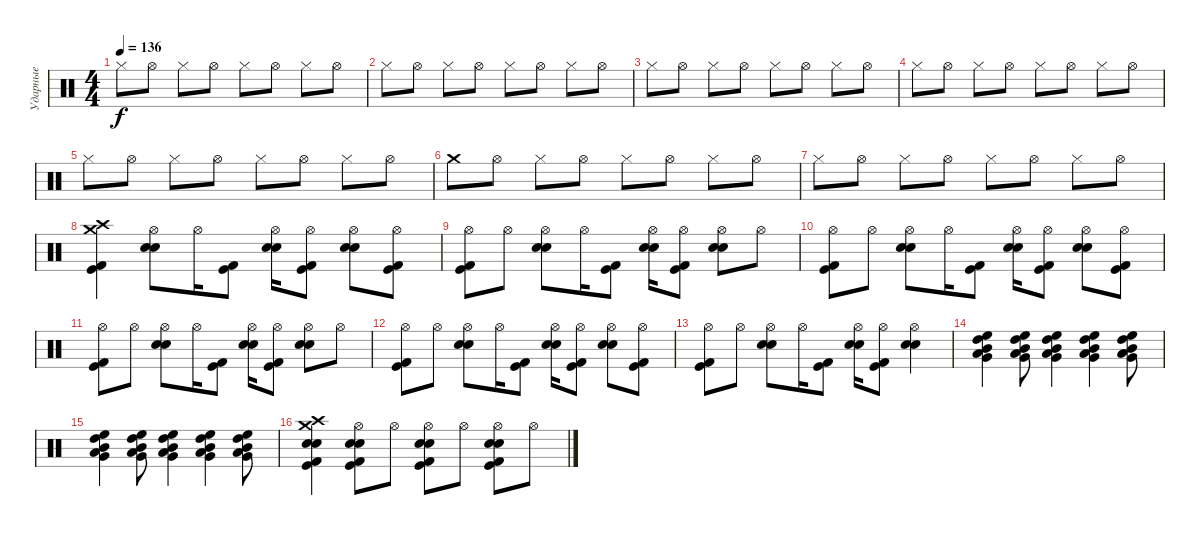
\track ("Ударные" "Ударные") {instrument percussion}
\staff {score}
\articulation defaults
\ts (4 4)
\tempo 136
\clef neutral
\ks c "Hi-Hat (closed)".8{dy f} "Hi-Hat (open)".8 "Hi-Hat (closed)".8 "Hi-Hat (open)".8 "Hi-Hat (closed)".8 "Hi-Hat (open)".8 "Hi-Hat (closed)".8 "Hi-Hat (open)".8
|
"Hi-Hat (closed)".8 "Hi-Hat (open)".8 "Hi-Hat (closed)".8 "Hi-Hat (open)".8 "Hi-Hat (closed)".8 "Hi-Hat (open)".8 "Hi-Hat (closed)".8 "Hi-Hat (open)".8 |
"Hi-Hat (closed)".8 "Hi-Hat (open)".8 "Hi-Hat (closed)".8 "Hi-Hat (open)".8 "Hi-Hat (closed)".8 "Hi-Hat (open)".8 "Hi-Hat (closed)".8 "Hi-Hat (open)".8 |
"Hi-Hat (closed)".8 "Hi-Hat (open)".8 "Hi-Hat (closed)".8 "Hi-Hat (open)".8 "Hi-Hat (closed)".8 "Hi-Hat (open)".8 "Hi-Hat (closed)".8 "Hi-Hat (open)".8 |
"Hi-Hat (closed)".8 "Hi-Hat (open)".8 "Hi-Hat (closed)".8 "Hi-Hat (open)".8 "Hi-Hat (closed)".8 "Hi-Hat (open)".8 "Hi-Hat (closed)".8 "Hi-Hat (open)".8 |
"Crash medium (hit)".8 "Hi-Hat (open)".8 "Hi-Hat (closed)".8 "Hi-Hat (open)".8 "Hi-Hat (closed)".8 "Hi-Hat (open)".8 "Hi-Hat (closed)".8 "Hi-Hat (open)".8 |
"Hi-Hat (closed)".8 "Hi-Hat (open)".8 "Hi-Hat (closed)".8 "Hi-Hat (open)".8 "Hi-Hat (closed)".8 "Hi-Hat (open)".8 "Hi-Hat (closed)".8 "Hi-Hat (open)".8 |
("Crash high (hit)" "Kick (hit)" "Kick (hit) 2" "Crash medium (hit)").4 ("Hi-Hat (open)" "Snare (hit) 2" "Electric Snare (hit)").8 "Hi-Hat (open)".16 ("Kick (hit)" "Kick (hit) 2").8 ("Hi-Hat (open)" "Snare (hit) 2" "Electric Snare (hit)").16 ("Hi-Hat (open)" "Kick (hit)" "Kick (hit) 2").8 ("Hi-Hat (open)" "Snare (hit) 2" "Electric Snare (hit)").8 ("Hi-Hat (open)" "Kick (hit)" "Kick (hit) 2").8 |
("Hi-Hat (open)" "Kick (hit)" "Kick (hit) 2").8 "Hi-Hat (open)".8 ("Hi-Hat (open)" "Snare (hit) 2" "Electric Snare (hit)").8 "Hi-Hat (open)".16 ("Kick (hit)" "Kick (hit) 2").8 ("Hi-Hat (open)" "Snare (hit) 2" "Electric Snare (hit)").16 ("Hi-Hat (open)" "Kick (hit)" "Kick (hit) 2").8 ("Hi-Hat (open)" "Snare (hit) 2" "Electric Snare (hit)").8 "Hi-Hat (open)".8 |
("Hi-Hat (open)" "Kick (hit)" "Kick (hit) 2").8 "Hi-Hat (open)".8 ("Hi-Hat (open)" "Snare (hit) 2" "Electric Snare (hit)").8 "Hi-Hat (open)".16 ("Kick (hit)" "Kick (hit) 2").8 ("Hi-Hat (open)" "Snare (hit) 2" "Electric Snare (hit)").16 ("Hi-Hat (open)" "Kick (hit)" "Kick (hit) 2").8 ("Hi-Hat (open)" "Snare (hit) 2" "Electric Snare (hit)").8 ("Hi-Hat (open)" "Kick (hit)" "Kick (hit) 2").8 |
("Hi-Hat (open)" "Kick (hit)" "Kick (hit) 2").8 "Hi-Hat (open)".8 ("Hi-Hat (open)" "Snare (hit) 2" "Electric Snare (hit)").8 "Hi-Hat (open)".16 ("Kick (hit)" "Kick (hit) 2").8 ("Hi-Hat (open)" "Snare (hit) 2" "Electric Snare (hit)").16 ("Hi-Hat (open)" "Kick (hit)" "Kick (hit) 2").8 ("Hi-Hat (open)" "Snare (hit) 2" "Electric Snare (hit)").8 "Hi-Hat (open)".8 |
("Hi-Hat (open)" "Kick (hit)" "Kick (hit) 2").8 "Hi-Hat (open)".8 ("Hi-Hat (open)" "Snare (hit) 2" "Electric Snare (hit)").8 "Hi-Hat (open)".16 ("Kick (hit)" "Kick (hit) 2").8 ("Hi-Hat (open)" "Snare (hit) 2" "Electric Snare (hit)").16 ("Hi-Hat (open)" "Kick (hit)" "Kick (hit) 2").8 ("Hi-Hat (open)" "Snare (hit) 2" "Electric Snare (hit)").8 ("Hi-Hat (open)" "Kick (hit)" "Kick (hit) 2").8 |
("Hi-Hat (open)" "Kick (hit)" "Kick (hit) 2").8 "Hi-Hat (open)".8 ("Hi-Hat (open)" "Snare (hit) 2" "Electric Snare (hit)").8 "Hi-Hat (open)".16 ("Kick (hit)" "Kick (hit) 2").8 ("Hi-Hat (open)" "Snare (hit) 2" "Electric Snare (hit)").16 ("Hi-Hat (open)" "Kick (hit)" "Kick (hit) 2").8 ("Hi-Hat (open)" "Snare (hit) 2" "Electric Snare (hit)").4 |
("High Floor Tom (hit)" "High Tom (hit)" "Mid Tom (hit)" "Low Tom (hit)" "Very Low Tom (hit)").4 ("High Floor Tom (hit)" "High Tom (hit)" "Mid Tom (hit)" "Low Tom (hit)" "Very Low Tom (hit)").8 ("High Floor Tom (hit)" "High Tom (hit)" "Mid Tom (hit)" "Low Tom (hit)" "Very Low Tom (hit)").4 ("High Floor Tom (hit)" "High Tom (hit)" "Mid Tom (hit)" "Low Tom (hit)" "Very Low Tom (hit)").4 ("High Floor Tom (hit)" "High Tom (hit)" "Mid Tom (hit)" "Low Tom (hit)" "Very Low Tom (hit)").8 |
("High Floor Tom (hit)" "High Tom (hit)" "Mid Tom (hit)" "Low Tom (hit)" "Very Low Tom (hit)").4 ("High Floor Tom (hit)" "High Tom (hit)" "Mid Tom (hit)" "Low Tom (hit)" "Very Low Tom (hit)").8 ("High Floor Tom (hit)" "High Tom (hit)" "Mid Tom (hit)" "Low Tom (hit)" "Very Low Tom (hit)").4 ("High Floor Tom (hit)" "High Tom (hit)" "Mid Tom (hit)" "Low Tom (hit)" "Very Low Tom (hit)").4 ("High Floor Tom (hit)" "High Tom (hit)" "Mid Tom (hit)" "Low Tom (hit)" "Very Low Tom (hit)").8 |
("Crash high (hit)" "Snare (hit) 2" "Kick (hit) 2" "Kick (hit)" "Electric Snare (hit)" "Crash medium (hit)").4 ("Hi-Hat (open)" "Snare (hit) 2" "Kick (hit) 2" "Kick (hit)" "Electric Snare (hit)").8 "Hi-Hat (open)".8 ("Hi-Hat (open)" "Snare (hit) 2" "Kick (hit) 2" "Kick (hit)" "Electric Snare (hit)").8 "Hi-Hat (open)".8 ("Hi-Hat (open)" "Snare (hit) 2" "Kick (hit) 2" "Kick (hit)" "Electric Snare (hit)").8 "Hi-Hat (open)".8
